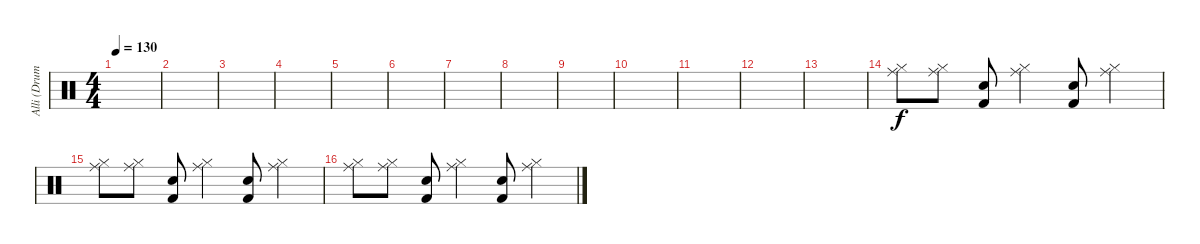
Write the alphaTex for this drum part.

\track ("Alli (Drums)" "Alli (Drum") {instrument percussion}
\staff {score}
\articulation defaults
\ts (4 4)
\tempo 130
\clef neutral
\ks c
|
|
|
|
|
|
|
|
|
|
|
|
|
("Ride (middle)" "Hi-Hat (closed)").8 ("Ride (middle)" "Hi-Hat (closed)").8 ("Kick (hit) 2" "Snare (hit) 2").8 ("Ride (middle)" "Hi-Hat (closed)").4 ("Kick (hit) 2" "Snare (hit) 2").8 ("Ride (middle)" "Hi-Hat (closed)").4 |
("Ride (middle)" "Hi-Hat (closed)").8 ("Ride (middle)" "Hi-Hat (closed)").8 ("Kick (hit) 2" "Snare (hit) 2").8 ("Ride (middle)" "Hi-Hat (closed)").4 ("Kick (hit) 2" "Snare (hit) 2").8 ("Ride (middle)" "Hi-Hat (closed)").4 |
("Ride (middle)" "Hi-Hat (closed)").8 ("Ride (middle)" "Hi-Hat (closed)").8 ("Kick (hit) 2" "Snare (hit) 2").8 ("Ride (middle)" "Hi-Hat (closed)").4 ("Kick (hit) 2" "Snare (hit) 2").8 ("Ride (middle)" "Hi-Hat (closed)").4
